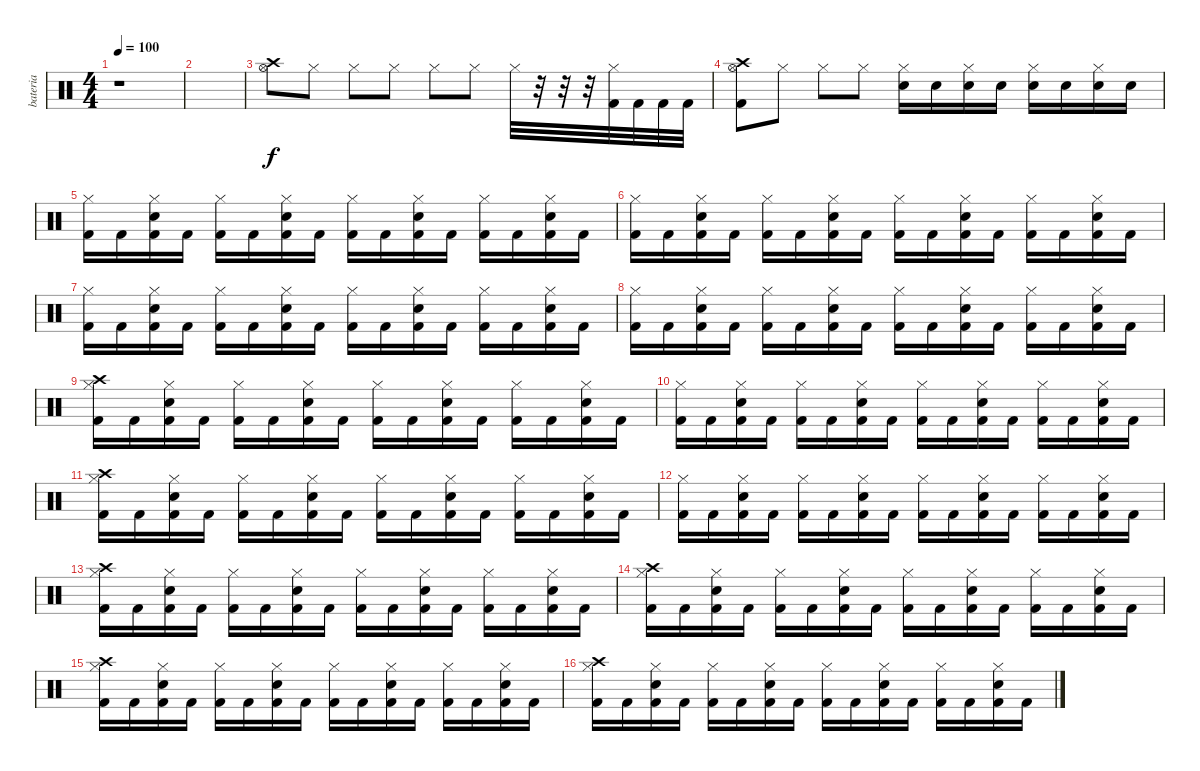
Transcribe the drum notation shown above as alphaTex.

\track ("bateria" "bateria") {instrument percussion}
\staff {score}
\articulation defaults
\ts (4 4)
\tempo 100
\clef neutral
\ks c
r.1{dy f} |
|
("Crash high (hit)"{nh} "Hi-Hat (open)"{nh}).8 "Hi-Hat (closed)".8 "Hi-Hat (closed)".8 "Hi-Hat (closed)".8 "Hi-Hat (closed)".8 "Hi-Hat (closed)".8 "Hi-Hat (closed)".32 r.32 r.32 r.32 ("Hi-Hat (closed)" "Kick (hit) 2").32 "Kick (hit) 2".32 "Kick (hit) 2".32 "Kick (hit) 2".32 |
("Crash high (hit)" "Hi-Hat (open)" "Kick (hit) 2").8 "Hi-Hat (closed)".8 "Hi-Hat (closed)".8 "Hi-Hat (closed)".8 ("Hi-Hat (closed)" "Electric Snare (hit)").16 "Electric Snare (hit)".16 ("Hi-Hat (closed)" "Electric Snare (hit)").16 "Electric Snare (hit)".16 ("Hi-Hat (closed)" "Electric Snare (hit)").16 "Electric Snare (hit)".16 ("Hi-Hat (closed)" "Electric Snare (hit)").16 "Electric Snare (hit)".16 |
("Kick (hit) 2" "Hi-Hat (closed)").16 "Kick (hit) 2".16 ("Kick (hit) 2" "Electric Snare (hit)" "Hi-Hat (closed)").16 "Kick (hit) 2".16 ("Kick (hit) 2" "Hi-Hat (closed)").16 "Kick (hit) 2".16 ("Kick (hit) 2" "Electric Snare (hit)" "Hi-Hat (closed)").16 "Kick (hit) 2".16 ("Kick (hit) 2" "Hi-Hat (closed)").16 "Kick (hit) 2".16 ("Kick (hit) 2" "Electric Snare (hit)" "Hi-Hat (closed)").16 "Kick (hit) 2".16 ("Kick (hit) 2" "Hi-Hat (closed)").16 "Kick (hit) 2".16 ("Kick (hit) 2" "Electric Snare (hit)" "Hi-Hat (closed)").16 "Kick (hit) 2".16 |
("Kick (hit) 2" "Hi-Hat (closed)").16 "Kick (hit) 2".16 ("Kick (hit) 2" "Electric Snare (hit)" "Hi-Hat (closed)").16 "Kick (hit) 2".16 ("Kick (hit) 2" "Hi-Hat (closed)").16 "Kick (hit) 2".16 ("Kick (hit) 2" "Electric Snare (hit)" "Hi-Hat (closed)").16 "Kick (hit) 2".16 ("Kick (hit) 2" "Hi-Hat (closed)").16 "Kick (hit) 2".16 ("Kick (hit) 2" "Electric Snare (hit)" "Hi-Hat (closed)").16 "Kick (hit) 2".16 ("Kick (hit) 2" "Hi-Hat (closed)").16 "Kick (hit) 2".16 ("Kick (hit) 2" "Electric Snare (hit)" "Hi-Hat (closed)").16 "Kick (hit) 2".16 |
("Kick (hit) 2" "Hi-Hat (closed)").16 "Kick (hit) 2".16 ("Kick (hit) 2" "Electric Snare (hit)" "Hi-Hat (closed)").16 "Kick (hit) 2".16 ("Kick (hit) 2" "Hi-Hat (closed)").16 "Kick (hit) 2".16 ("Kick (hit) 2" "Electric Snare (hit)" "Hi-Hat (closed)").16 "Kick (hit) 2".16 ("Kick (hit) 2" "Hi-Hat (closed)").16 "Kick (hit) 2".16 ("Kick (hit) 2" "Electric Snare (hit)" "Hi-Hat (closed)").16 "Kick (hit) 2".16 ("Kick (hit) 2" "Hi-Hat (closed)").16 "Kick (hit) 2".16 ("Kick (hit) 2" "Electric Snare (hit)" "Hi-Hat (closed)").16 "Kick (hit) 2".16 |
("Kick (hit) 2" "Hi-Hat (closed)").16 "Kick (hit) 2".16 ("Kick (hit) 2" "Electric Snare (hit)" "Hi-Hat (closed)").16 "Kick (hit) 2".16 ("Kick (hit) 2" "Hi-Hat (closed)").16 "Kick (hit) 2".16 ("Kick (hit) 2" "Electric Snare (hit)" "Hi-Hat (closed)").16 "Kick (hit) 2".16 ("Kick (hit) 2" "Hi-Hat (closed)").16 "Kick (hit) 2".16 ("Kick (hit) 2" "Electric Snare (hit)" "Hi-Hat (closed)").16 "Kick (hit) 2".16 ("Kick (hit) 2" "Hi-Hat (closed)").16 "Kick (hit) 2".16 ("Kick (hit) 2" "Electric Snare (hit)" "Hi-Hat (closed)").16 "Kick (hit) 2".16 |
("Kick (hit) 2" "Hi-Hat (closed)" "Crash high (hit)").16 "Kick (hit) 2".16 ("Kick (hit) 2" "Electric Snare (hit)" "Hi-Hat (closed)").16 "Kick (hit) 2".16 ("Kick (hit) 2" "Hi-Hat (closed)").16 "Kick (hit) 2".16 ("Kick (hit) 2" "Electric Snare (hit)" "Hi-Hat (closed)").16 "Kick (hit) 2".16 ("Kick (hit) 2" "Hi-Hat (closed)").16 "Kick (hit) 2".16 ("Kick (hit) 2" "Electric Snare (hit)" "Hi-Hat (closed)").16 "Kick (hit) 2".16 ("Kick (hit) 2" "Hi-Hat (closed)").16 "Kick (hit) 2".16 ("Kick (hit) 2" "Electric Snare (hit)" "Hi-Hat (closed)").16 "Kick (hit) 2".16 |
("Kick (hit) 2" "Hi-Hat (closed)").16 "Kick (hit) 2".16 ("Kick (hit) 2" "Electric Snare (hit)" "Hi-Hat (closed)").16 "Kick (hit) 2".16 ("Kick (hit) 2" "Hi-Hat (closed)").16 "Kick (hit) 2".16 ("Kick (hit) 2" "Electric Snare (hit)" "Hi-Hat (closed)").16 "Kick (hit) 2".16 ("Kick (hit) 2" "Hi-Hat (closed)").16 "Kick (hit) 2".16 ("Kick (hit) 2" "Electric Snare (hit)" "Hi-Hat (closed)").16 "Kick (hit) 2".16 ("Kick (hit) 2" "Hi-Hat (closed)").16 "Kick (hit) 2".16 ("Kick (hit) 2" "Electric Snare (hit)" "Hi-Hat (closed)").16 "Kick (hit) 2".16 |
("Kick (hit) 2" "Hi-Hat (closed)" "Crash high (hit)").16 "Kick (hit) 2".16 ("Kick (hit) 2" "Electric Snare (hit)" "Hi-Hat (closed)").16 "Kick (hit) 2".16 ("Kick (hit) 2" "Hi-Hat (closed)").16 "Kick (hit) 2".16 ("Kick (hit) 2" "Electric Snare (hit)" "Hi-Hat (closed)").16 "Kick (hit) 2".16 ("Kick (hit) 2" "Hi-Hat (closed)").16 "Kick (hit) 2".16 ("Kick (hit) 2" "Electric Snare (hit)" "Hi-Hat (closed)").16 "Kick (hit) 2".16 ("Kick (hit) 2" "Hi-Hat (closed)").16 "Kick (hit) 2".16 ("Kick (hit) 2" "Electric Snare (hit)" "Hi-Hat (closed)").16 "Kick (hit) 2".16 |
("Kick (hit) 2" "Hi-Hat (closed)").16 "Kick (hit) 2".16 ("Kick (hit) 2" "Electric Snare (hit)" "Hi-Hat (closed)").16 "Kick (hit) 2".16 ("Kick (hit) 2" "Hi-Hat (closed)").16 "Kick (hit) 2".16 ("Kick (hit) 2" "Electric Snare (hit)" "Hi-Hat (closed)").16 "Kick (hit) 2".16 ("Kick (hit) 2" "Hi-Hat (closed)").16 "Kick (hit) 2".16 ("Kick (hit) 2" "Electric Snare (hit)" "Hi-Hat (closed)").16 "Kick (hit) 2".16 ("Kick (hit) 2" "Hi-Hat (closed)").16 "Kick (hit) 2".16 ("Kick (hit) 2" "Electric Snare (hit)" "Hi-Hat (closed)").16 "Kick (hit) 2".16 |
("Kick (hit) 2" "Hi-Hat (closed)" "Crash high (hit)").16 "Kick (hit) 2".16 ("Kick (hit) 2" "Electric Snare (hit)" "Hi-Hat (closed)").16 "Kick (hit) 2".16 ("Kick (hit) 2" "Hi-Hat (closed)").16 "Kick (hit) 2".16 ("Kick (hit) 2" "Electric Snare (hit)" "Hi-Hat (closed)").16 "Kick (hit) 2".16 ("Kick (hit) 2" "Hi-Hat (closed)").16 "Kick (hit) 2".16 ("Kick (hit) 2" "Electric Snare (hit)" "Hi-Hat (closed)").16 "Kick (hit) 2".16 ("Kick (hit) 2" "Hi-Hat (closed)").16 "Kick (hit) 2".16 ("Kick (hit) 2" "Electric Snare (hit)" "Hi-Hat (closed)").16 "Kick (hit) 2".16 |
("Kick (hit) 2" "Hi-Hat (closed)" "Crash high (hit)").16 "Kick (hit) 2".16 ("Kick (hit) 2" "Electric Snare (hit)" "Hi-Hat (closed)").16 "Kick (hit) 2".16 ("Kick (hit) 2" "Hi-Hat (closed)").16 "Kick (hit) 2".16 ("Kick (hit) 2" "Electric Snare (hit)" "Hi-Hat (closed)").16 "Kick (hit) 2".16 ("Kick (hit) 2" "Hi-Hat (closed)").16 "Kick (hit) 2".16 ("Kick (hit) 2" "Electric Snare (hit)" "Hi-Hat (closed)").16 "Kick (hit) 2".16 ("Kick (hit) 2" "Hi-Hat (closed)").16 "Kick (hit) 2".16 ("Kick (hit) 2" "Electric Snare (hit)" "Hi-Hat (closed)").16 "Kick (hit) 2".16 |
("Kick (hit) 2" "Hi-Hat (closed)" "Crash high (hit)").16 "Kick (hit) 2".16 ("Kick (hit) 2" "Electric Snare (hit)" "Hi-Hat (closed)").16 "Kick (hit) 2".16 ("Kick (hit) 2" "Hi-Hat (closed)").16 "Kick (hit) 2".16 ("Kick (hit) 2" "Electric Snare (hit)" "Hi-Hat (closed)").16 "Kick (hit) 2".16 ("Kick (hit) 2" "Hi-Hat (closed)").16 "Kick (hit) 2".16 ("Kick (hit) 2" "Electric Snare (hit)" "Hi-Hat (closed)").16 "Kick (hit) 2".16 ("Kick (hit) 2" "Hi-Hat (closed)").16 "Kick (hit) 2".16 ("Kick (hit) 2" "Electric Snare (hit)" "Hi-Hat (closed)").16 "Kick (hit) 2".16 |
("Kick (hit) 2" "Hi-Hat (closed)" "Crash high (hit)").16 "Kick (hit) 2".16 ("Kick (hit) 2" "Electric Snare (hit)" "Hi-Hat (closed)").16 "Kick (hit) 2".16 ("Kick (hit) 2" "Hi-Hat (closed)").16 "Kick (hit) 2".16 ("Kick (hit) 2" "Electric Snare (hit)" "Hi-Hat (closed)").16 "Kick (hit) 2".16 ("Kick (hit) 2" "Hi-Hat (closed)").16 "Kick (hit) 2".16 ("Kick (hit) 2" "Electric Snare (hit)" "Hi-Hat (closed)").16 "Kick (hit) 2".16 ("Kick (hit) 2" "Hi-Hat (closed)").16 "Kick (hit) 2".16 ("Kick (hit) 2" "Electric Snare (hit)" "Hi-Hat (closed)").16 "Kick (hit) 2".16
